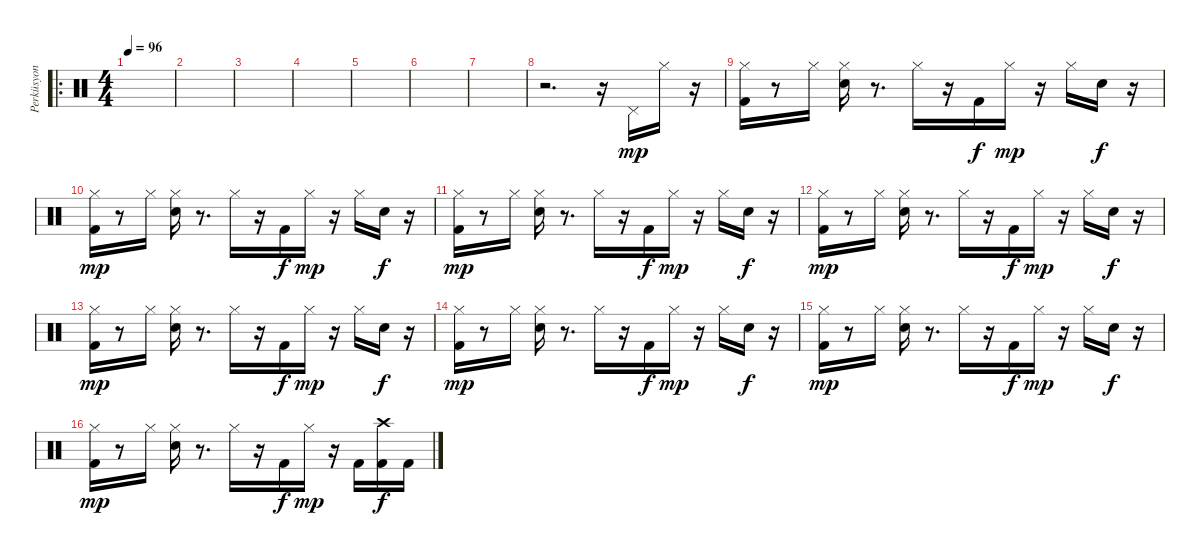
\track ("Perküsyon" "Perküsyon") {instrument percussion}
\staff {score}
\articulation defaults
\ro
\ts (4 4)
\tempo 96
\clef neutral
\ks c
|
|
|
|
|
|
|
r.2{d} r.16 "Pedal Hi-Hat (hit)".16{dy mp} "Hi-Hat (closed)".16 r.16 |
("Hi-Hat (closed)" "Kick (hit) 2").16 r.8 "Hi-Hat (closed)".16 ("Snare (hit) 2" "Hi-Hat (closed)").16 r.8{d} "Hi-Hat (closed)".16 r.16 "Kick (hit) 2".16{dy f} "Hi-Hat (closed)".16{dy mp} r.16 "Hi-Hat (closed)".16 "Snare (hit) 2".16{dy f} r.16 |
("Kick (hit) 2" "Hi-Hat (closed)").16{dy mp} r.8 "Hi-Hat (closed)".16 ("Hi-Hat (closed)" "Snare (hit) 2").16 r.8{d} "Hi-Hat (closed)".16 r.16 "Kick (hit) 2".16{dy f} "Hi-Hat (closed)".16{dy mp} r.16 "Hi-Hat (closed)".16 "Snare (hit) 2".16{dy f} r.16 |
("Kick (hit) 2" "Hi-Hat (closed)").16{dy mp} r.8 "Hi-Hat (closed)".16 ("Hi-Hat (closed)" "Snare (hit) 2").16 r.8{d} "Hi-Hat (closed)".16 r.16 "Kick (hit) 2".16{dy f} "Hi-Hat (closed)".16{dy mp} r.16 "Hi-Hat (closed)".16 "Snare (hit) 2".16{dy f} r.16 |
("Kick (hit) 2" "Hi-Hat (closed)").16{dy mp} r.8 "Hi-Hat (closed)".16 ("Hi-Hat (closed)" "Snare (hit) 2").16 r.8{d} "Hi-Hat (closed)".16 r.16 "Kick (hit) 2".16{dy f} "Hi-Hat (closed)".16{dy mp} r.16 "Hi-Hat (closed)".16 "Snare (hit) 2".16{dy f} r.16 |
("Hi-Hat (closed)" "Kick (hit) 2").16{dy mp} r.8 "Hi-Hat (closed)".16 ("Hi-Hat (closed)" "Snare (hit) 2").16 r.8{d} "Hi-Hat (closed)".16 r.16 "Kick (hit) 2".16{dy f} "Hi-Hat (closed)".16{dy mp} r.16 "Hi-Hat (closed)".16 "Snare (hit) 2".16{dy f} r.16 |
("Hi-Hat (closed)" "Kick (hit) 2").16{dy mp} r.8 "Hi-Hat (closed)".16 ("Hi-Hat (closed)" "Snare (hit) 2").16 r.8{d} "Hi-Hat (closed)".16 r.16 "Kick (hit) 2".16{dy f} "Hi-Hat (closed)".16{dy mp} r.16 "Hi-Hat (closed)".16 "Snare (hit) 2".16{dy f} r.16 |
("Kick (hit) 2" "Hi-Hat (closed)").16{dy mp} r.8 "Hi-Hat (closed)".16 ("Hi-Hat (closed)" "Snare (hit) 2").16 r.8{d} "Hi-Hat (closed)".16 r.16 "Kick (hit) 2".16{dy f} "Hi-Hat (closed)".16{dy mp} r.16 "Hi-Hat (closed)".16 "Snare (hit) 2".16{dy f} r.16 |
("Kick (hit) 2" "Hi-Hat (closed)").16{dy mp} r.8 "Hi-Hat (closed)".16 ("Snare (hit) 2" "Hi-Hat (closed)").16 r.8{d} "Hi-Hat (closed)".16 r.16 "Kick (hit) 2".16{dy f} "Hi-Hat (closed)".16{dy mp} r.16 "Kick (hit) 2".16 ("Kick (hit) 2" "Crash high (hit)").16{dy f} "Kick (hit) 2".16
